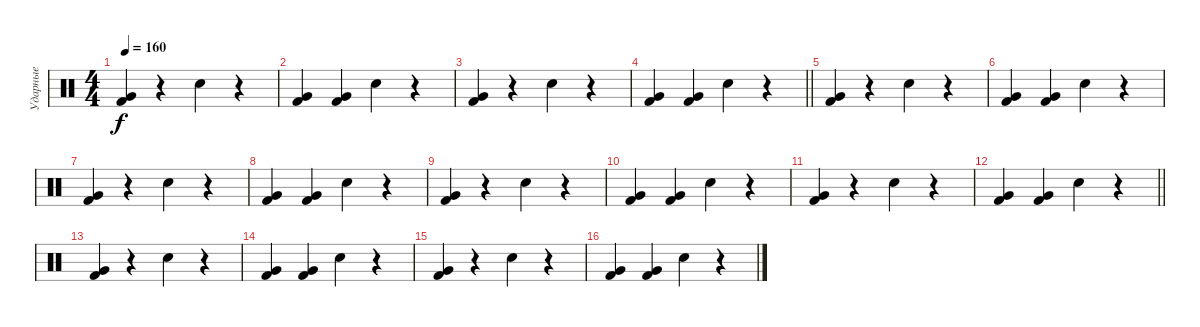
\track ("Ударные" "Ударные") {instrument percussion}
\staff {score}
\articulation defaults
\ts (4 4)
\tempo 160
\clef neutral
\ks c
("Very Low Tom (hit)" "Kick (hit) 2").4{dy f} r.4 "Snare (hit) 2".4 r.4 |
("Very Low Tom (hit)" "Kick (hit) 2").4 ("Very Low Tom (hit)" "Kick (hit) 2").4 "Snare (hit) 2".4 r.4 |
("Very Low Tom (hit)" "Kick (hit) 2").4 r.4 "Snare (hit) 2".4 r.4 |
\barLineRight lightlight
("Very Low Tom (hit)" "Kick (hit) 2").4 ("Very Low Tom (hit)" "Kick (hit) 2").4 "Snare (hit) 2".4 r.4 |
("Very Low Tom (hit)" "Kick (hit) 2").4 r.4 "Snare (hit) 2".4 r.4 |
("Very Low Tom (hit)" "Kick (hit) 2").4 ("Very Low Tom (hit)" "Kick (hit) 2").4 "Snare (hit) 2".4 r.4 |
("Very Low Tom (hit)" "Kick (hit) 2").4 r.4 "Snare (hit) 2".4 r.4 |
("Very Low Tom (hit)" "Kick (hit) 2").4 ("Very Low Tom (hit)" "Kick (hit) 2").4 "Snare (hit) 2".4 r.4 |
("Very Low Tom (hit)" "Kick (hit) 2").4 r.4 "Snare (hit) 2".4 r.4 |
("Very Low Tom (hit)" "Kick (hit) 2").4 ("Very Low Tom (hit)" "Kick (hit) 2").4 "Snare (hit) 2".4 r.4 |
("Very Low Tom (hit)" "Kick (hit) 2").4 r.4 "Snare (hit) 2".4 r.4 |
\barLineRight lightlight
("Very Low Tom (hit)" "Kick (hit) 2").4 ("Very Low Tom (hit)" "Kick (hit) 2").4 "Snare (hit) 2".4 r.4 |
("Very Low Tom (hit)" "Kick (hit) 2").4 r.4 "Snare (hit) 2".4 r.4 |
("Very Low Tom (hit)" "Kick (hit) 2").4 ("Very Low Tom (hit)" "Kick (hit) 2").4 "Snare (hit) 2".4 r.4 |
("Very Low Tom (hit)" "Kick (hit) 2").4 r.4 "Snare (hit) 2".4 r.4 |
("Very Low Tom (hit)" "Kick (hit) 2").4 ("Very Low Tom (hit)" "Kick (hit) 2").4 "Snare (hit) 2".4 r.4
